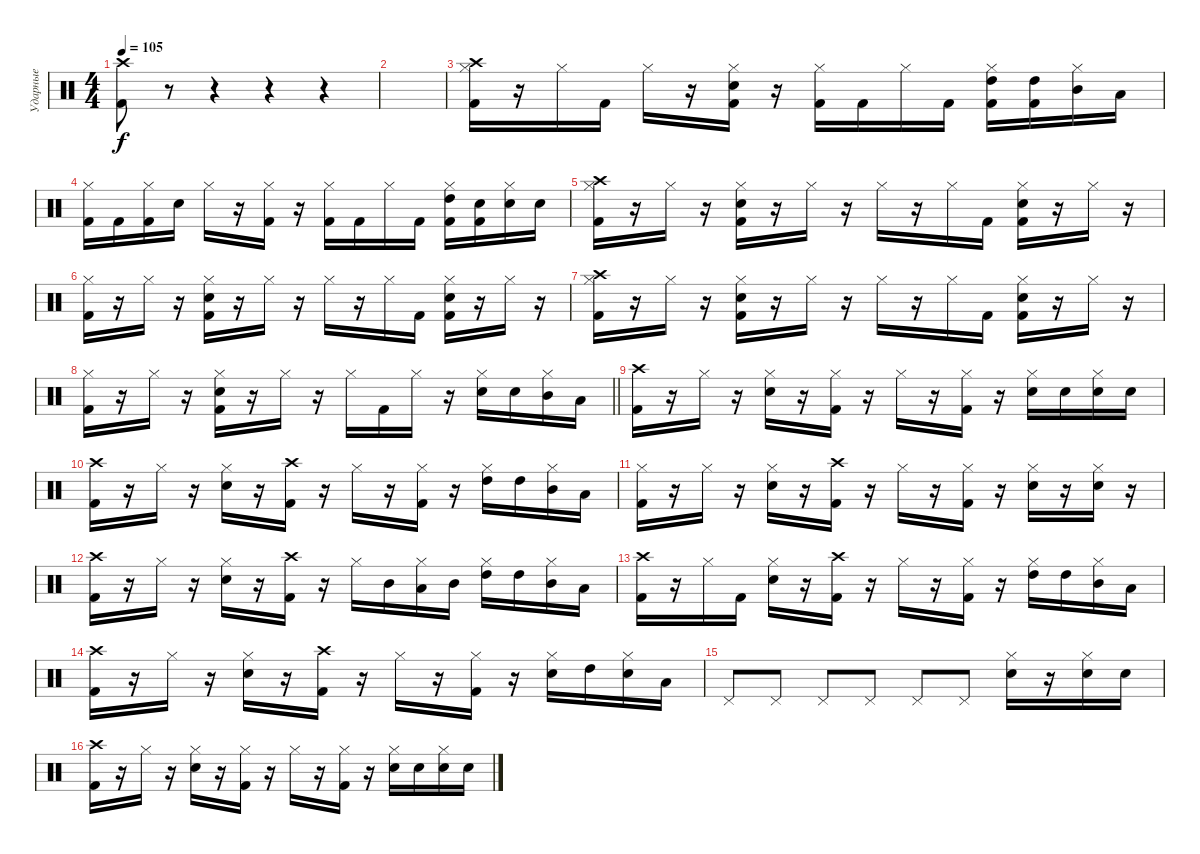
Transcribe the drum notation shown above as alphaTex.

\track ("Ударные" "Ударные") {instrument percussion}
\staff {score}
\articulation defaults
\ts (4 4)
\tempo 105
\clef neutral
\ks c
("Kick (hit) 2" "Crash high (hit)").8{dy f} r.8 r.4 r.4 r.4 |
|
("Hi-Hat (closed)" "Crash high (hit)" "Kick (hit) 2").16 r.16 "Hi-Hat (closed)".16 "Kick (hit) 2".16 "Hi-Hat (closed)".16 r.16 ("Hi-Hat (closed)" "Kick (hit) 2" "Electric Snare (hit)").16 r.16 ("Hi-Hat (closed)" "Kick (hit) 2").16 "Kick (hit) 2".16 "Hi-Hat (closed)".16 "Kick (hit) 2".16 ("Hi-Hat (closed)" "Kick (hit) 2" "High Tom (hit)").16 ("Kick (hit) 2" "High Tom (hit)").16 ("Hi-Hat (closed)" "Mid Tom (hit)").16 "Low Tom (hit)".16 |
("Hi-Hat (closed)" "Kick (hit) 2").16 "Kick (hit) 2".16 ("Hi-Hat (closed)" "Kick (hit) 2").16 "Electric Snare (hit)".16 "Hi-Hat (closed)".16 r.16 ("Hi-Hat (closed)" "Kick (hit) 2").16 r.16 ("Hi-Hat (closed)" "Kick (hit) 2").16 "Kick (hit) 2".16 "Hi-Hat (closed)".16 "Kick (hit) 2".16 ("Hi-Hat (closed)" "Kick (hit) 2" "High Tom (hit)").16 ("Kick (hit) 2" "Electric Snare (hit)").16 ("Hi-Hat (closed)" "Electric Snare (hit)").16 "Electric Snare (hit)".16 |
("Hi-Hat (closed)" "Kick (hit) 2" "Crash high (hit)").16 r.16 "Hi-Hat (closed)".16 r.16 ("Hi-Hat (closed)" "Kick (hit) 2" "Electric Snare (hit)").16 r.16 "Hi-Hat (closed)".16 r.16 "Hi-Hat (closed)".16 r.16 "Hi-Hat (closed)".16 "Kick (hit) 2".16 ("Hi-Hat (closed)" "Kick (hit) 2" "Electric Snare (hit)").16 r.16 "Hi-Hat (closed)".16 r.16 |
("Hi-Hat (closed)" "Kick (hit) 2").16 r.16 "Hi-Hat (closed)".16 r.16 ("Hi-Hat (closed)" "Kick (hit) 2" "Electric Snare (hit)").16 r.16 "Hi-Hat (closed)".16 r.16 "Hi-Hat (closed)".16 r.16 "Hi-Hat (closed)".16 "Kick (hit) 2".16 ("Hi-Hat (closed)" "Kick (hit) 2" "Electric Snare (hit)").16 r.16 "Hi-Hat (closed)".16 r.16 |
("Hi-Hat (closed)" "Kick (hit) 2" "Crash high (hit)").16 r.16 "Hi-Hat (closed)".16 r.16 ("Hi-Hat (closed)" "Kick (hit) 2" "Electric Snare (hit)").16 r.16 "Hi-Hat (closed)".16 r.16 "Hi-Hat (closed)".16 r.16 "Hi-Hat (closed)".16 "Kick (hit) 2".16 ("Hi-Hat (closed)" "Kick (hit) 2" "Electric Snare (hit)").16 r.16 "Hi-Hat (closed)".16 r.16 |
\barLineRight lightlight
("Hi-Hat (closed)" "Kick (hit) 2").16 r.16 "Hi-Hat (closed)".16 r.16 ("Hi-Hat (closed)" "Kick (hit) 2" "Electric Snare (hit)").16 r.16 "Hi-Hat (closed)".16 r.16 "Hi-Hat (closed)".16 "Kick (hit) 2".16 "Hi-Hat (closed)".16 r.16 ("Hi-Hat (closed)" "Electric Snare (hit)").16 "Electric Snare (hit)".16 ("Hi-Hat (closed)" "Mid Tom (hit)").16 "Low Tom (hit)".16 |
("Crash high (hit)" "Kick (hit) 2").16 r.16 "Hi-Hat (closed)".16 r.16 ("Hi-Hat (closed)" "Electric Snare (hit)").16 r.16 ("Hi-Hat (closed)" "Kick (hit) 2").16 r.16 "Hi-Hat (closed)".16 r.16 ("Hi-Hat (closed)" "Kick (hit) 2").16 r.16 ("Hi-Hat (closed)" "Electric Snare (hit)").16 "Electric Snare (hit)".16 ("Hi-Hat (closed)" "Electric Snare (hit)").16 "Electric Snare (hit)".16 |
("Crash high (hit)" "Kick (hit) 2").16 r.16 "Hi-Hat (closed)".16 r.16 ("Hi-Hat (closed)" "Electric Snare (hit)").16 r.16 ("Crash high (hit)" "Kick (hit) 2").16 r.16 "Hi-Hat (closed)".16 r.16 ("Hi-Hat (closed)" "Kick (hit) 2").16 r.16 ("Hi-Hat (closed)" "High Tom (hit)").16 "High Tom (hit)".16 ("Hi-Hat (closed)" "Mid Tom (hit)").16 "Low Tom (hit)".16 |
("Hi-Hat (closed)" "Kick (hit) 2").16 r.16 "Hi-Hat (closed)".16 r.16 ("Hi-Hat (closed)" "Electric Snare (hit)").16 r.16 ("Crash high (hit)" "Kick (hit) 2").16 r.16 "Hi-Hat (closed)".16 r.16 ("Hi-Hat (closed)" "Kick (hit) 2").16 r.16 ("Hi-Hat (closed)" "Electric Snare (hit)").16 r.16 ("Hi-Hat (closed)" "Electric Snare (hit)").16 r.16 |
("Crash high (hit)" "Kick (hit) 2").16 r.16 "Hi-Hat (closed)".16 r.16 ("Hi-Hat (closed)" "Electric Snare (hit)").16 r.16 ("Crash high (hit)" "Kick (hit) 2").16 r.16 "Hi-Hat (closed)".16 "Mid Tom (hit)".16 ("Hi-Hat (closed)" "Low Tom (hit)").16 "Mid Tom (hit)".16 ("Hi-Hat (closed)" "High Tom (hit)").16 "High Tom (hit)".16 ("Hi-Hat (closed)" "Mid Tom (hit)").16 "Low Tom (hit)".16 |
("Crash high (hit)" "Kick (hit) 2").16 r.16 "Hi-Hat (closed)".16 "Kick (hit) 2".16 ("Hi-Hat (closed)" "Electric Snare (hit)").16 r.16 ("Crash high (hit)" "Kick (hit) 2").16 r.16 "Hi-Hat (closed)".16 r.16 ("Hi-Hat (closed)" "Kick (hit) 2").16 r.16 ("Hi-Hat (closed)" "High Tom (hit)").16 "High Tom (hit)".16 ("Hi-Hat (closed)" "Mid Tom (hit)").16 "Low Tom (hit)".16 |
("Crash high (hit)" "Kick (hit) 2").16 r.16 "Hi-Hat (closed)".16 r.16 ("Hi-Hat (closed)" "Electric Snare (hit)").16 r.16 ("Crash high (hit)" "Kick (hit) 2").16 r.16 "Hi-Hat (closed)".16 r.16 ("Hi-Hat (closed)" "Kick (hit) 2").16 r.16 ("Hi-Hat (closed)" "Electric Snare (hit)").16 "High Tom (hit)".16 ("Hi-Hat (closed)" "Electric Snare (hit)").16 "Low Tom (hit)".16 |
"Pedal Hi-Hat (hit)".8 "Pedal Hi-Hat (hit)".8 "Pedal Hi-Hat (hit)".8 "Pedal Hi-Hat (hit)".8 "Pedal Hi-Hat (hit)".8 "Pedal Hi-Hat (hit)".8 ("Hi-Hat (closed)" "Electric Snare (hit)").16 r.16 ("Hi-Hat (closed)" "Electric Snare (hit)").16 "Electric Snare (hit)".16 |
("Crash high (hit)" "Kick (hit) 2").16 r.16 "Hi-Hat (closed)".16 r.16 ("Hi-Hat (closed)" "Electric Snare (hit)").16 r.16 ("Hi-Hat (closed)" "Kick (hit) 2").16 r.16 "Hi-Hat (closed)".16 r.16 ("Hi-Hat (closed)" "Kick (hit) 2").16 r.16 ("Hi-Hat (closed)" "Electric Snare (hit)").16 "Electric Snare (hit)".16 ("Hi-Hat (closed)" "Electric Snare (hit)").16 "Electric Snare (hit)".16
